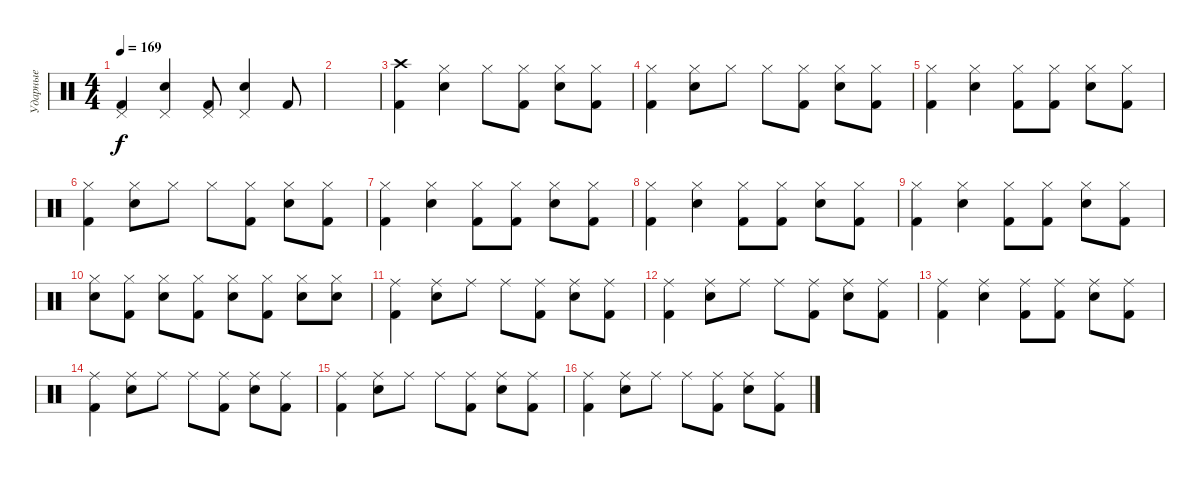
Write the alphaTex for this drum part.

\track ("Ударные" "Ударные") {instrument percussion}
\staff {score}
\articulation defaults
\ts (4 4)
\tempo 169
\clef neutral
\ks c
("Kick (hit) 2" "Pedal Hi-Hat (hit)").4{dy f} ("Electric Snare (hit)" "Pedal Hi-Hat (hit)").4 ("Kick (hit) 2" "Pedal Hi-Hat (hit)").8 ("Electric Snare (hit)" "Pedal Hi-Hat (hit)").4 "Kick (hit) 2".8 |
|
("Kick (hit) 2" "Crash high (hit)").4 ("Electric Snare (hit)" "Hi-Hat (closed)").4 "Hi-Hat (closed)".8 ("Kick (hit) 2" "Hi-Hat (closed)").8 ("Electric Snare (hit)" "Hi-Hat (closed)").8 ("Kick (hit) 2" "Hi-Hat (closed)").8 |
("Kick (hit) 2" "Hi-Hat (closed)").4 ("Electric Snare (hit)" "Hi-Hat (closed)").8 "Hi-Hat (closed)".8 "Hi-Hat (closed)".8 ("Kick (hit) 2" "Hi-Hat (closed)").8 ("Electric Snare (hit)" "Hi-Hat (closed)").8 ("Kick (hit) 2" "Hi-Hat (closed)").8 |
("Kick (hit) 2" "Hi-Hat (closed)").4 ("Electric Snare (hit)" "Hi-Hat (closed)").4 ("Kick (hit) 2" "Hi-Hat (closed)").8 ("Kick (hit) 2" "Hi-Hat (closed)").8 ("Electric Snare (hit)" "Hi-Hat (closed)").8 ("Kick (hit) 2" "Hi-Hat (closed)").8 |
("Kick (hit) 2" "Hi-Hat (closed)").4 ("Electric Snare (hit)" "Hi-Hat (closed)").8 "Hi-Hat (closed)".8 "Hi-Hat (closed)".8 ("Kick (hit) 2" "Hi-Hat (closed)").8 ("Electric Snare (hit)" "Hi-Hat (closed)").8 ("Kick (hit) 2" "Hi-Hat (closed)").8 |
("Kick (hit) 2" "Hi-Hat (closed)").4 ("Electric Snare (hit)" "Hi-Hat (closed)").4 ("Kick (hit) 2" "Hi-Hat (closed)").8 ("Kick (hit) 2" "Hi-Hat (closed)").8 ("Electric Snare (hit)" "Hi-Hat (closed)").8 ("Kick (hit) 2" "Hi-Hat (closed)").8 |
("Kick (hit) 2" "Hi-Hat (closed)").4 ("Electric Snare (hit)" "Hi-Hat (closed)").4 ("Kick (hit) 2" "Hi-Hat (closed)").8 ("Kick (hit) 2" "Hi-Hat (closed)").8 ("Electric Snare (hit)" "Hi-Hat (closed)").8 ("Kick (hit) 2" "Hi-Hat (closed)").8 |
("Kick (hit) 2" "Hi-Hat (closed)").4 ("Electric Snare (hit)" "Hi-Hat (closed)").4 ("Kick (hit) 2" "Hi-Hat (closed)").8 ("Kick (hit) 2" "Hi-Hat (closed)").8 ("Electric Snare (hit)" "Hi-Hat (closed)").8 ("Kick (hit) 2" "Hi-Hat (closed)").8 |
("Electric Snare (hit)" "Hi-Hat (closed)").8 ("Kick (hit) 2" "Hi-Hat (closed)").8 ("Electric Snare (hit)" "Hi-Hat (closed)").8 ("Kick (hit) 2" "Hi-Hat (closed)").8 ("Electric Snare (hit)" "Hi-Hat (closed)").8 ("Kick (hit) 2" "Hi-Hat (closed)").8 ("Electric Snare (hit)" "Hi-Hat (closed)").8 ("Electric Snare (hit)" "Hi-Hat (closed)").8 |
("Kick (hit) 2" "Ride (middle)").4 ("Electric Snare (hit)" "Ride (middle)").8 "Ride (middle)".8 "Ride (middle)".8 ("Kick (hit) 2" "Ride (middle)").8 ("Electric Snare (hit)" "Ride (middle)").8 ("Kick (hit) 2" "Ride (middle)").8 |
("Kick (hit) 2" "Ride (middle)").4 ("Electric Snare (hit)" "Ride (middle)").8 "Ride (middle)".8 "Ride (middle)".8 ("Kick (hit) 2" "Ride (middle)").8 ("Electric Snare (hit)" "Ride (middle)").8 ("Kick (hit) 2" "Ride (middle)").8 |
("Kick (hit) 2" "Ride (middle)").4 ("Electric Snare (hit)" "Ride (middle)").4 ("Kick (hit) 2" "Ride (middle)").8 ("Kick (hit) 2" "Ride (middle)").8 ("Electric Snare (hit)" "Ride (middle)").8 ("Kick (hit) 2" "Ride (middle)").8 |
("Kick (hit) 2" "Ride (middle)").4 ("Electric Snare (hit)" "Ride (middle)").8 "Ride (middle)".8 "Ride (middle)".8 ("Kick (hit) 2" "Ride (middle)").8 ("Electric Snare (hit)" "Ride (middle)").8 ("Kick (hit) 2" "Ride (middle)").8 |
("Kick (hit) 2" "Ride (middle)").4 ("Electric Snare (hit)" "Ride (middle)").8 "Ride (middle)".8 "Ride (middle)".8 ("Kick (hit) 2" "Ride (middle)").8 ("Electric Snare (hit)" "Ride (middle)").8 ("Kick (hit) 2" "Ride (middle)").8 |
("Kick (hit) 2" "Ride (middle)").4 ("Electric Snare (hit)" "Ride (middle)").8 "Ride (middle)".8 "Ride (middle)".8 ("Kick (hit) 2" "Ride (middle)").8 ("Electric Snare (hit)" "Ride (middle)").8 ("Kick (hit) 2" "Ride (middle)").8
